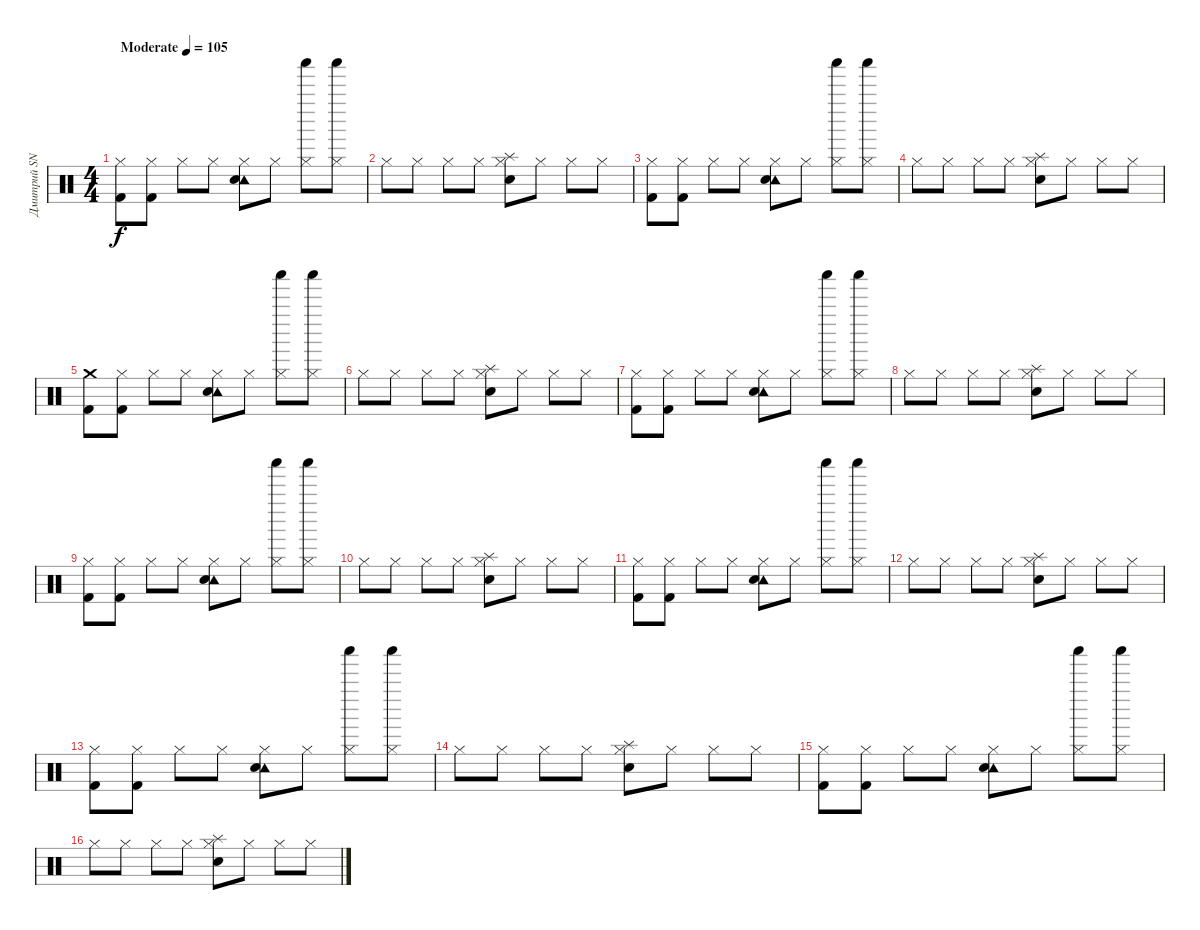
\track ("Дмитрий SNAKE Хакимов" "Дмитрий SN") {instrument percussion}
\staff {score}
\articulation defaults
\ts (4 4)
\tempo (105 "Moderate")
\clef neutral
\ks c
("Hi-Hat (closed)" "Kick (hit) 2").8{dy f} ("Hi-Hat (closed)" "Kick (hit) 2").8 "Hi-Hat (closed)".8 "Hi-Hat (closed)".8 ("Hi-Hat (closed)" "Tambourine (hit)" "Metronome (bell)").8 "Hi-Hat (closed)".8 ("Hi-Hat (closed)" "Shaker (hit)").8 ("Hi-Hat (closed)" "Shaker (hit)").8 |
"Hi-Hat (closed)".8 "Hi-Hat (closed)".8 "Hi-Hat (closed)".8 "Hi-Hat (closed)".8 ("Hi-Hat (closed)" "Splash (hit)" "Metronome (bell)").8 "Hi-Hat (closed)".8 "Hi-Hat (closed)".8 "Hi-Hat (closed)".8 |
("Hi-Hat (closed)" "Kick (hit) 2").8 ("Hi-Hat (closed)" "Kick (hit) 2").8 "Hi-Hat (closed)".8 "Hi-Hat (closed)".8 ("Hi-Hat (closed)" "Tambourine (hit)" "Metronome (bell)").8 "Hi-Hat (closed)".8 ("Hi-Hat (closed)" "Shaker (hit)").8 ("Hi-Hat (closed)" "Shaker (hit)").8 |
"Hi-Hat (closed)".8 "Hi-Hat (closed)".8 "Hi-Hat (closed)".8 "Hi-Hat (closed)".8 ("Hi-Hat (closed)" "Splash (hit)" "Metronome (bell)").8 "Hi-Hat (closed)".8 "Hi-Hat (closed)".8 "Hi-Hat (closed)".8 |
("Crash medium (hit)" "Kick (hit) 2").8 ("Hi-Hat (closed)" "Kick (hit) 2").8 "Hi-Hat (closed)".8 "Hi-Hat (closed)".8 ("Hi-Hat (closed)" "Tambourine (hit)" "Metronome (bell)").8 "Hi-Hat (closed)".8 ("Hi-Hat (closed)" "Shaker (hit)").8 ("Hi-Hat (closed)" "Shaker (hit)").8 |
"Hi-Hat (closed)".8 "Hi-Hat (closed)".8 "Hi-Hat (closed)".8 "Hi-Hat (closed)".8 ("Hi-Hat (closed)" "Splash (hit)" "Metronome (bell)").8 "Hi-Hat (closed)".8 "Hi-Hat (closed)".8 "Hi-Hat (closed)".8 |
("Hi-Hat (closed)" "Kick (hit) 2").8 ("Hi-Hat (closed)" "Kick (hit) 2").8 "Hi-Hat (closed)".8 "Hi-Hat (closed)".8 ("Hi-Hat (closed)" "Tambourine (hit)" "Metronome (bell)").8 "Hi-Hat (closed)".8 ("Hi-Hat (closed)" "Shaker (hit)").8 ("Hi-Hat (closed)" "Shaker (hit)").8 |
"Hi-Hat (closed)".8 "Hi-Hat (closed)".8 "Hi-Hat (closed)".8 "Hi-Hat (closed)".8 ("Hi-Hat (closed)" "Splash (hit)" "Metronome (bell)").8 "Hi-Hat (closed)".8 "Hi-Hat (closed)".8 "Hi-Hat (closed)".8 |
("Hi-Hat (closed)" "Kick (hit) 2").8 ("Hi-Hat (closed)" "Kick (hit) 2").8 "Hi-Hat (closed)".8 "Hi-Hat (closed)".8 ("Hi-Hat (closed)" "Tambourine (hit)" "Metronome (bell)").8 "Hi-Hat (closed)".8 ("Hi-Hat (closed)" "Shaker (hit)").8 ("Hi-Hat (closed)" "Shaker (hit)").8 |
"Hi-Hat (closed)".8 "Hi-Hat (closed)".8 "Hi-Hat (closed)".8 "Hi-Hat (closed)".8 ("Hi-Hat (closed)" "Splash (hit)" "Metronome (bell)").8 "Hi-Hat (closed)".8 "Hi-Hat (closed)".8 "Hi-Hat (closed)".8 |
("Hi-Hat (closed)" "Kick (hit) 2").8 ("Hi-Hat (closed)" "Kick (hit) 2").8 "Hi-Hat (closed)".8 "Hi-Hat (closed)".8 ("Hi-Hat (closed)" "Tambourine (hit)" "Metronome (bell)").8 "Hi-Hat (closed)".8 ("Hi-Hat (closed)" "Shaker (hit)").8 ("Hi-Hat (closed)" "Shaker (hit)").8 |
"Hi-Hat (closed)".8 "Hi-Hat (closed)".8 "Hi-Hat (closed)".8 "Hi-Hat (closed)".8 ("Hi-Hat (closed)" "Splash (hit)" "Metronome (bell)").8 "Hi-Hat (closed)".8 "Hi-Hat (closed)".8 "Hi-Hat (closed)".8 |
("Hi-Hat (closed)" "Kick (hit) 2").8 ("Hi-Hat (closed)" "Kick (hit) 2").8 "Hi-Hat (closed)".8 "Hi-Hat (closed)".8 ("Hi-Hat (closed)" "Tambourine (hit)" "Metronome (bell)").8 "Hi-Hat (closed)".8 ("Hi-Hat (closed)" "Shaker (hit)").8 ("Hi-Hat (closed)" "Shaker (hit)").8 |
"Hi-Hat (closed)".8 "Hi-Hat (closed)".8 "Hi-Hat (closed)".8 "Hi-Hat (closed)".8 ("Hi-Hat (closed)" "Splash (hit)" "Metronome (bell)").8 "Hi-Hat (closed)".8 "Hi-Hat (closed)".8 "Hi-Hat (closed)".8 |
("Hi-Hat (closed)" "Kick (hit) 2").8 ("Hi-Hat (closed)" "Kick (hit) 2").8 "Hi-Hat (closed)".8 "Hi-Hat (closed)".8 ("Hi-Hat (closed)" "Tambourine (hit)" "Metronome (bell)").8 "Hi-Hat (closed)".8 ("Hi-Hat (closed)" "Shaker (hit)").8 ("Hi-Hat (closed)" "Shaker (hit)").8 |
"Hi-Hat (closed)".8 "Hi-Hat (closed)".8 "Hi-Hat (closed)".8 "Hi-Hat (closed)".8 ("Hi-Hat (closed)" "Splash (hit)" "Metronome (bell)").8 "Hi-Hat (closed)".8 "Hi-Hat (closed)".8 "Hi-Hat (closed)".8
